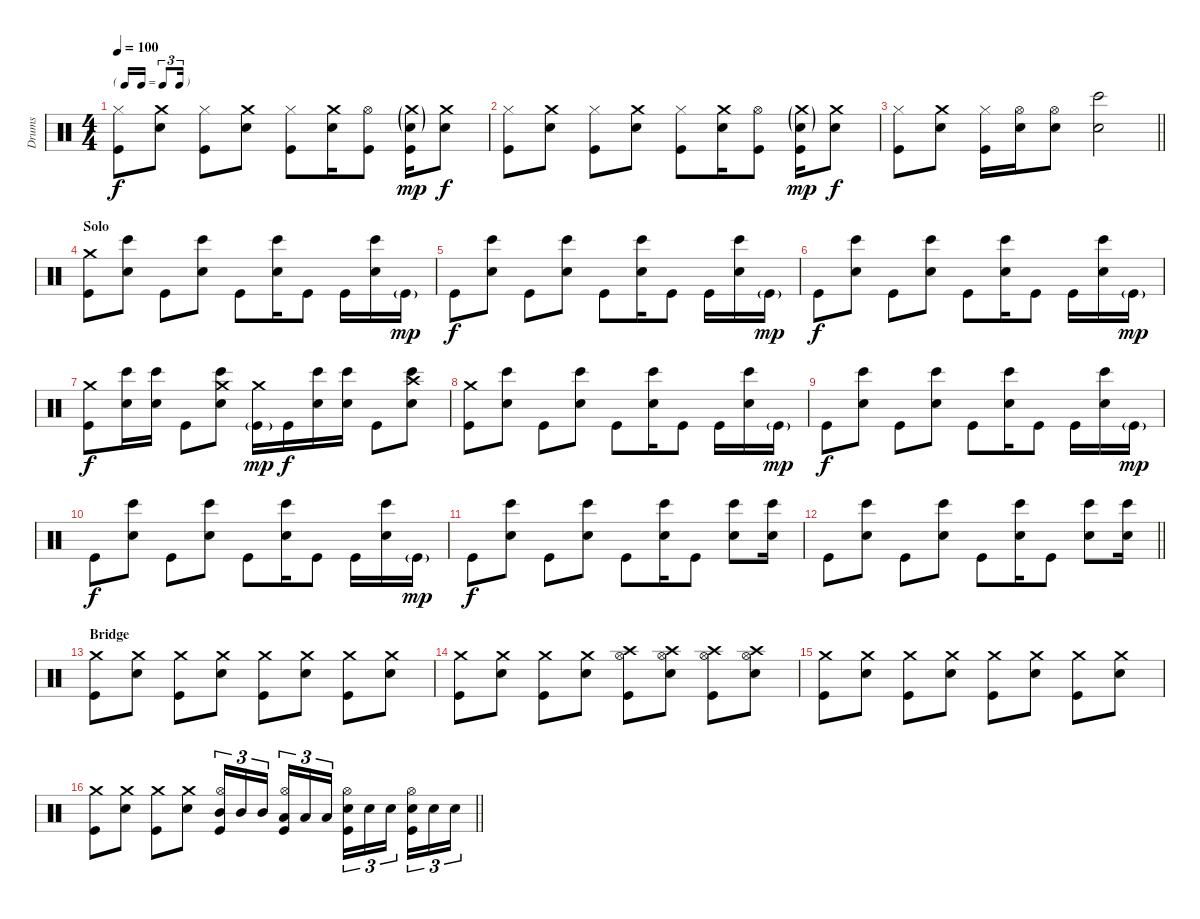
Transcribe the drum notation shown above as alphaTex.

\track ("Drums" "Drums") {instrument percussion}
\staff {score}
\articulation defaults
\ts (4 4)
\tf triplet16th
\tempo 100
\clef neutral
\ks c
("Hi-Hat (closed)" "Kick (hit)").8{dy f} ("Crash medium (hit)" "Electric Snare (hit)").8 ("Hi-Hat (closed)" "Kick (hit)").8 ("Crash medium (hit)" "Electric Snare (hit)").8 ("Hi-Hat (closed)" "Kick (hit)").8 ("Crash medium (hit)" "Electric Snare (hit)").16 ("Hi-Hat (open)" "Kick (hit)").8 ("Crash medium (hit)"{g} "Electric Snare (hit)"{g} "Kick (hit)").16{dy mp} ("Crash medium (hit)" "Electric Snare (hit)").8{dy f} |
("Hi-Hat (closed)" "Kick (hit)").8 ("Crash medium (hit)" "Electric Snare (hit)").8 ("Hi-Hat (closed)" "Kick (hit)").8 ("Crash medium (hit)" "Electric Snare (hit)").8 ("Hi-Hat (closed)" "Kick (hit)").8 ("Crash medium (hit)" "Electric Snare (hit)").16 ("Hi-Hat (open)" "Kick (hit)").8 ("Crash medium (hit)"{g} "Electric Snare (hit)"{g} "Kick (hit)").16{dy mp} ("Crash medium (hit)" "Electric Snare (hit)").8{dy f} |
\barLineRight lightlight
("Hi-Hat (closed)" "Kick (hit)").8 ("Crash medium (hit)" "Electric Snare (hit)").8 ("Hi-Hat (closed)" "Kick (hit)").16 ("Hi-Hat (open)" "Electric Snare (hit)").16 ("Hi-Hat (open)" "Electric Snare (hit)").8 ("Bongo High (hit)" "Hand Clap (hit)").2 |
\section ("" "Solo")
("Crash medium (hit)" "Kick (hit)").8 ("Bongo High (hit)" "Hand Clap (hit)").8 "Kick (hit)".8 ("Bongo High (hit)" "Hand Clap (hit)").8 "Kick (hit)".8 ("Bongo High (hit)" "Hand Clap (hit)").16 "Kick (hit)".8 "Kick (hit)".16 ("Bongo High (hit)" "Hand Clap (hit)").16 "Kick (hit)"{g}.16{dy mp} |
"Kick (hit)".8{dy f} ("Bongo High (hit)" "Hand Clap (hit)").8 "Kick (hit)".8 ("Bongo High (hit)" "Hand Clap (hit)").8 "Kick (hit)".8 ("Bongo High (hit)" "Hand Clap (hit)").16 "Kick (hit)".8 "Kick (hit)".16 ("Bongo High (hit)" "Hand Clap (hit)").16 "Kick (hit)"{g}.16{dy mp} |
"Kick (hit)".8{dy f} ("Bongo High (hit)" "Hand Clap (hit)").8 "Kick (hit)".8 ("Bongo High (hit)" "Hand Clap (hit)").8 "Kick (hit)".8 ("Bongo High (hit)" "Hand Clap (hit)").16 "Kick (hit)".8 "Kick (hit)".16 ("Bongo High (hit)" "Hand Clap (hit)").16 "Kick (hit)"{g}.16{dy mp} |
("Crash medium (hit)" "Kick (hit)").8{dy f} ("Bongo High (hit)" "Hand Clap (hit)").16 ("Bongo High (hit)" "Hand Clap (hit)").16 "Kick (hit)".8 ("Crash medium (hit)" "Bongo High (hit)" "Hand Clap (hit)").8 ("Crash medium (hit)" "Kick (hit)"{g}).16{dy mp} "Kick (hit)".16{dy f} ("Bongo High (hit)" "Hand Clap (hit)").16 ("Bongo High (hit)" "Hand Clap (hit)").16 "Kick (hit)".8 ("Crash high (hit)" "Bongo High (hit)" "Hand Clap (hit)").8 |
("Crash medium (hit)" "Kick (hit)").8 ("Bongo High (hit)" "Hand Clap (hit)").8 "Kick (hit)".8 ("Bongo High (hit)" "Hand Clap (hit)").8 "Kick (hit)".8 ("Bongo High (hit)" "Hand Clap (hit)").16 "Kick (hit)".8 "Kick (hit)".16 ("Bongo High (hit)" "Hand Clap (hit)").16 "Kick (hit)"{g}.16{dy mp} |
"Kick (hit)".8{dy f} ("Bongo High (hit)" "Hand Clap (hit)").8 "Kick (hit)".8 ("Bongo High (hit)" "Hand Clap (hit)").8 "Kick (hit)".8 ("Bongo High (hit)" "Hand Clap (hit)").16 "Kick (hit)".8 "Kick (hit)".16 ("Bongo High (hit)" "Hand Clap (hit)").16 "Kick (hit)"{g}.16{dy mp} |
"Kick (hit)".8{dy f} ("Bongo High (hit)" "Hand Clap (hit)").8 "Kick (hit)".8 ("Bongo High (hit)" "Hand Clap (hit)").8 "Kick (hit)".8 ("Bongo High (hit)" "Hand Clap (hit)").16 "Kick (hit)".8 "Kick (hit)".16 ("Bongo High (hit)" "Hand Clap (hit)").16 "Kick (hit)"{g}.16{dy mp} |
"Kick (hit)".8{dy f} ("Bongo High (hit)" "Hand Clap (hit)").8 "Kick (hit)".8 ("Bongo High (hit)" "Hand Clap (hit)").8 "Kick (hit)".8 ("Bongo High (hit)" "Hand Clap (hit)").16 "Kick (hit)".8 ("Bongo High (hit)" "Hand Clap (hit)").8 ("Bongo High (hit)" "Hand Clap (hit)").16 |
\barLineRight lightlight "Kick (hit)".8
("Bongo High (hit)" "Hand Clap (hit)").8 "Kick (hit)".8 ("Bongo High (hit)" "Hand Clap (hit)").8 "Kick (hit)".8 ("Bongo High (hit)" "Hand Clap (hit)").16 "Kick (hit)".8 ("Bongo High (hit)" "Hand Clap (hit)").8 ("Bongo High (hit)" "Hand Clap (hit)").16 |
\section ("" "Bridge")
("Crash medium (hit)" "Kick (hit)").8 ("Crash medium (hit)" "Electric Snare (hit)").8 ("Crash medium (hit)" "Kick (hit)").8 ("Crash medium (hit)" "Electric Snare (hit)").8 ("Crash medium (hit)" "Kick (hit)").8 ("Crash medium (hit)" "Electric Snare (hit)").8 ("Crash medium (hit)" "Kick (hit)").8 ("Crash medium (hit)" "Electric Snare (hit)").8 |
("Crash medium (hit)" "Kick (hit)").8 ("Crash medium (hit)" "Electric Snare (hit)").8 ("Crash medium (hit)" "Kick (hit)").8 ("Crash medium (hit)" "Electric Snare (hit)").8 ("Crash high (hit)" "Hi-Hat (open)" "Kick (hit)").8 ("Crash high (hit)" "Hi-Hat (open)" "Electric Snare (hit)").8 ("Crash high (hit)" "Hi-Hat (open)" "Kick (hit)").8 ("Crash high (hit)" "Hi-Hat (open)" "Electric Snare (hit)").8 |
("Crash medium (hit)" "Kick (hit)").8 ("Crash medium (hit)" "Electric Snare (hit)").8 ("Crash medium (hit)" "Kick (hit)").8 ("Crash medium (hit)" "Electric Snare (hit)").8 ("Crash medium (hit)" "Kick (hit)").8 ("Crash medium (hit)" "Electric Snare (hit)").8 ("Crash medium (hit)" "Kick (hit)").8 ("Crash medium (hit)" "Electric Snare (hit)").8 |
\barLineRight lightlight
("Crash medium (hit)" "Kick (hit)").8 ("Crash medium (hit)" "Electric Snare (hit)").8 ("Crash medium (hit)" "Kick (hit)").8 ("Crash medium (hit)" "Electric Snare (hit)").8 ("Hi-Hat (open)" "Mid Tom (hit)" "Kick (hit)").16{tu (3 2)} "Mid Tom (hit)".16{tu (3 2)} "Mid Tom (hit)".16{tu (3 2) beam splitsecondary} ("Hi-Hat (open)" "Low Tom (hit)" "Kick (hit)").16{tu (3 2)} "Low Tom (hit)".16{tu (3 2)} "Low Tom (hit)".16{tu (3 2)} ("Hi-Hat (open)" "Electric Snare (hit)" "Kick (hit)").16{tu (3 2)} "Electric Snare (hit)".16{tu (3 2)} "Electric Snare (hit)".16{tu (3 2) beam splitsecondary} ("Hi-Hat (open)" "Electric Snare (hit)" "Kick (hit)").16{tu (3 2)} "Electric Snare (hit)".16{tu (3 2)} "Electric Snare (hit)".16{tu (3 2)}
